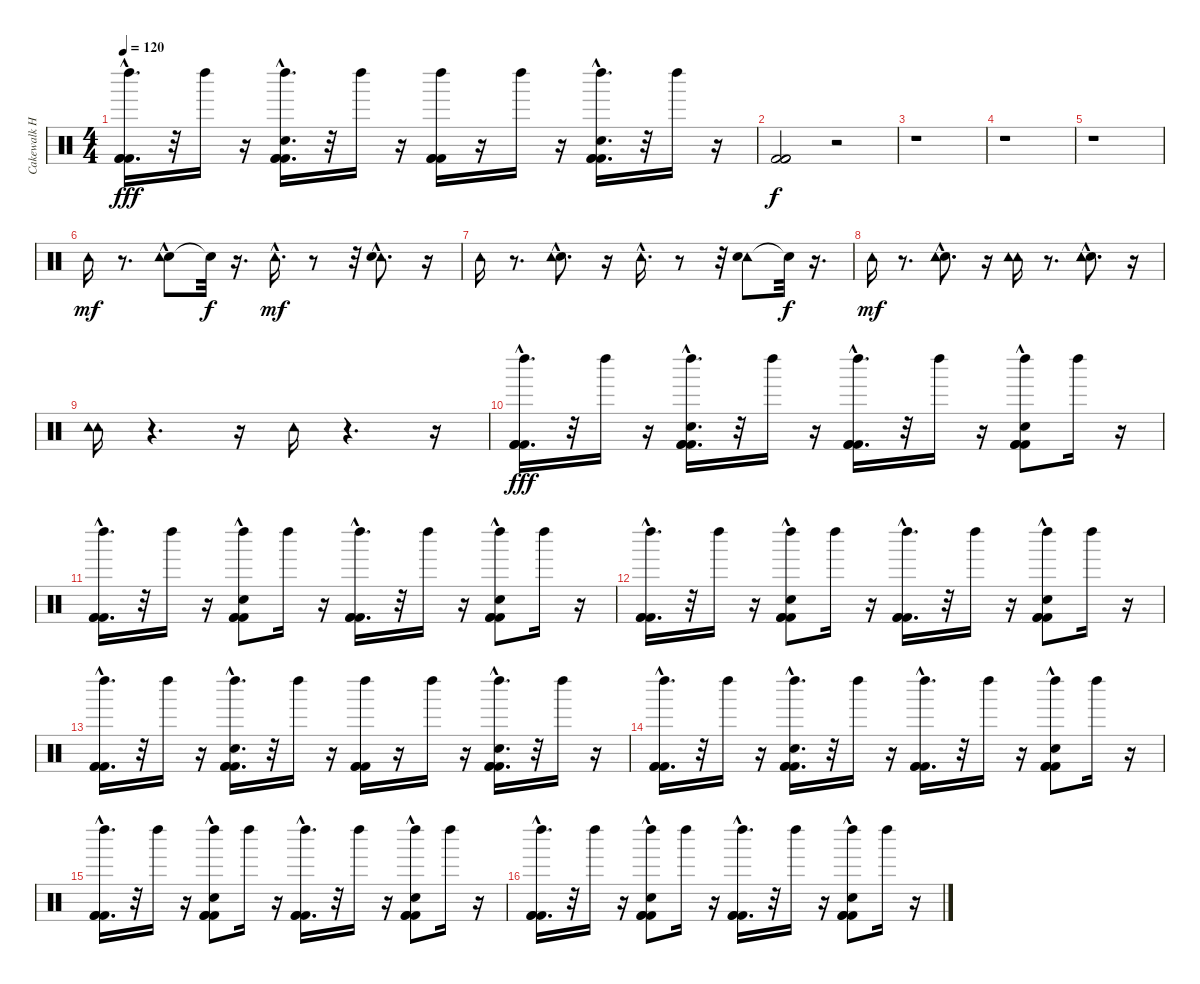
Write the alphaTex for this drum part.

\track ("Cakewalk Home Studio 5.0" "Cakewalk H") {instrument percussion}
\staff {score}
\articulation defaults
\ts (4 4)
\tempo 120
\clef neutral
\ks c
("Kick (hit) 2"{hac} "Left Maraca (hit)" "Kick (hit) 2"{hac} "Kick (hit) 2"{hac}).16{d dy fff} r.32 "Left Maraca (hit)".16 r.16 ("Left Maraca (hit)" "Kick (hit) 2"{hac} "Hand Clap (hit)"{hac} "Kick (hit) 2"{hac} "Kick (hit) 2"{hac}).16{d} r.32 "Left Maraca (hit)".16 r.16 ("Left Maraca (hit)" "Kick (hit) 2" "Kick (hit) 2" "Kick (hit) 2").16 r.16 "Left Maraca (hit)".16 r.16 ("Hand Clap (hit)"{hac} "Left Maraca (hit)" "Kick (hit) 2"{hac} "Kick (hit) 2"{hac} "Kick (hit) 2"{hac}).16{d} r.32 "Left Maraca (hit)".16 r.16 |
("Kick (hit) 2" "Kick (hit) 2" "Kick (hit) 2").2{dy f} r.2 |
r.1 |
r.1 |
r.1 |
"Tambourine (hit)".16{dy mf} r.8{d} ("Hand Clap (hit)" "Tambourine (hit)"{hac}).8 "Snare (hit)"{t}.32{dy f} r.16{d} "Tambourine (hit)"{hac}.16{d dy mf} r.8 r.32 ("Tambourine (hit)" "Hand Clap (hit)"{hac}).8{d} r.16 |
"Tambourine (hit)".16 r.8{d} ("Hand Clap (hit)"{hac} "Tambourine (hit)").8{d} r.16 "Tambourine (hit)"{hac}.16{d} r.8 r.32 ("Tambourine (hit)" "Hand Clap (hit)").8 "Snare (hit)"{t}.32{dy f} r.16{d} |
"Tambourine (hit)".16{dy mf} r.8{d} ("Hand Clap (hit)"{hac} "Tambourine (hit)" "Tambourine (hit)").8{d} r.16 ("Tambourine (hit)" "Tambourine (hit)").16 r.8{d} ("Hand Clap (hit)"{hac} "Tambourine (hit)" "Tambourine (hit)").8{d} r.16 |
("Tambourine (hit)" "Tambourine (hit)").16 r.4{d} r.16 "Tambourine (hit)".16 r.4{d} r.16 |
("Kick (hit) 2"{hac} "Kick (hit) 2"{hac} "Left Maraca (hit)" "Kick (hit) 2"{hac}).16{d dy fff} r.32 "Left Maraca (hit)".16 r.16 ("Kick (hit) 2"{hac} "Kick (hit) 2"{hac} "Left Maraca (hit)" "Hand Clap (hit)"{hac} "Kick (hit) 2"{hac}).16{d} r.32 "Left Maraca (hit)".16 r.16 ("Kick (hit) 2"{hac} "Kick (hit) 2"{hac} "Left Maraca (hit)" "Kick (hit) 2"{hac}).16{d} r.32 "Left Maraca (hit)".16 r.16 ("Kick (hit) 2"{hac} "Kick (hit) 2"{hac} "Left Maraca (hit)" "Hand Clap (hit)" "Kick (hit) 2"{hac}).8 "Left Maraca (hit)".16 r.16 |
("Kick (hit) 2"{hac} "Left Maraca (hit)" "Kick (hit) 2"{hac} "Kick (hit) 2"{hac}).16{d} r.32 "Left Maraca (hit)".16 r.16 ("Kick (hit) 2"{hac} "Kick (hit) 2"{hac} "Left Maraca (hit)" "Hand Clap (hit)" "Kick (hit) 2"{hac}).8 "Left Maraca (hit)".16 r.16 ("Kick (hit) 2"{hac} "Kick (hit) 2"{hac} "Left Maraca (hit)" "Kick (hit) 2"{hac}).16{d} r.32 "Left Maraca (hit)".16 r.16 ("Kick (hit) 2"{hac} "Hand Clap (hit)" "Kick (hit) 2"{hac} "Left Maraca (hit)" "Kick (hit) 2"{hac}).8 "Left Maraca (hit)".16 r.16 |
("Kick (hit) 2"{hac} "Kick (hit) 2"{hac} "Left Maraca (hit)" "Kick (hit) 2"{hac}).16{d} r.32 "Left Maraca (hit)".16 r.16 ("Kick (hit) 2"{hac} "Kick (hit) 2"{hac} "Hand Clap (hit)" "Left Maraca (hit)" "Kick (hit) 2"{hac}).8 "Left Maraca (hit)".16 r.16 ("Kick (hit) 2"{hac} "Kick (hit) 2"{hac} "Left Maraca (hit)" "Kick (hit) 2"{hac}).16{d} r.32 "Left Maraca (hit)".16 r.16 ("Kick (hit) 2"{hac} "Kick (hit) 2"{hac} "Hand Clap (hit)" "Left Maraca (hit)" "Kick (hit) 2"{hac}).8 "Left Maraca (hit)".16 r.16 |
("Kick (hit) 2"{hac} "Kick (hit) 2"{hac} "Left Maraca (hit)" "Kick (hit) 2"{hac}).16{d} r.32 "Left Maraca (hit)".16 r.16 ("Kick (hit) 2"{hac} "Left Maraca (hit)" "Kick (hit) 2"{hac} "Hand Clap (hit)"{hac} "Kick (hit) 2"{hac}).16{d} r.32 "Left Maraca (hit)".16 r.16 ("Kick (hit) 2" "Left Maraca (hit)" "Kick (hit) 2" "Kick (hit) 2").16 r.16 "Left Maraca (hit)".16 r.16 ("Kick (hit) 2"{hac} "Hand Clap (hit)"{hac} "Left Maraca (hit)" "Kick (hit) 2"{hac} "Kick (hit) 2"{hac}).16{d} r.32 "Left Maraca (hit)".16 r.16 |
("Kick (hit) 2"{hac} "Kick (hit) 2"{hac} "Left Maraca (hit)" "Kick (hit) 2"{hac}).16{d} r.32 "Left Maraca (hit)".16 r.16 ("Kick (hit) 2"{hac} "Kick (hit) 2"{hac} "Left Maraca (hit)" "Hand Clap (hit)"{hac} "Kick (hit) 2"{hac}).16{d} r.32 "Left Maraca (hit)".16 r.16 ("Kick (hit) 2"{hac} "Kick (hit) 2"{hac} "Left Maraca (hit)" "Kick (hit) 2"{hac}).16{d} r.32 "Left Maraca (hit)".16 r.16 ("Kick (hit) 2"{hac} "Kick (hit) 2"{hac} "Left Maraca (hit)" "Hand Clap (hit)" "Kick (hit) 2"{hac}).8 "Left Maraca (hit)".16 r.16 |
("Kick (hit) 2"{hac} "Left Maraca (hit)" "Kick (hit) 2"{hac} "Kick (hit) 2"{hac}).16{d} r.32 "Left Maraca (hit)".16 r.16 ("Kick (hit) 2"{hac} "Kick (hit) 2"{hac} "Left Maraca (hit)" "Hand Clap (hit)" "Kick (hit) 2"{hac}).8 "Left Maraca (hit)".16 r.16 ("Kick (hit) 2"{hac} "Kick (hit) 2"{hac} "Left Maraca (hit)" "Kick (hit) 2"{hac}).16{d} r.32 "Left Maraca (hit)".16 r.16 ("Kick (hit) 2"{hac} "Hand Clap (hit)" "Kick (hit) 2"{hac} "Left Maraca (hit)" "Kick (hit) 2"{hac}).8 "Left Maraca (hit)".16 r.16 |
("Kick (hit) 2"{hac} "Kick (hit) 2"{hac} "Left Maraca (hit)" "Kick (hit) 2"{hac}).16{d} r.32 "Left Maraca (hit)".16 r.16 ("Kick (hit) 2"{hac} "Kick (hit) 2"{hac} "Hand Clap (hit)" "Left Maraca (hit)" "Kick (hit) 2"{hac}).8 "Left Maraca (hit)".16 r.16 ("Kick (hit) 2"{hac} "Kick (hit) 2"{hac} "Left Maraca (hit)" "Kick (hit) 2"{hac}).16{d} r.32 "Left Maraca (hit)".16 r.16 ("Kick (hit) 2"{hac} "Kick (hit) 2"{hac} "Hand Clap (hit)" "Left Maraca (hit)" "Kick (hit) 2"{hac}).8 "Left Maraca (hit)".16 r.16
